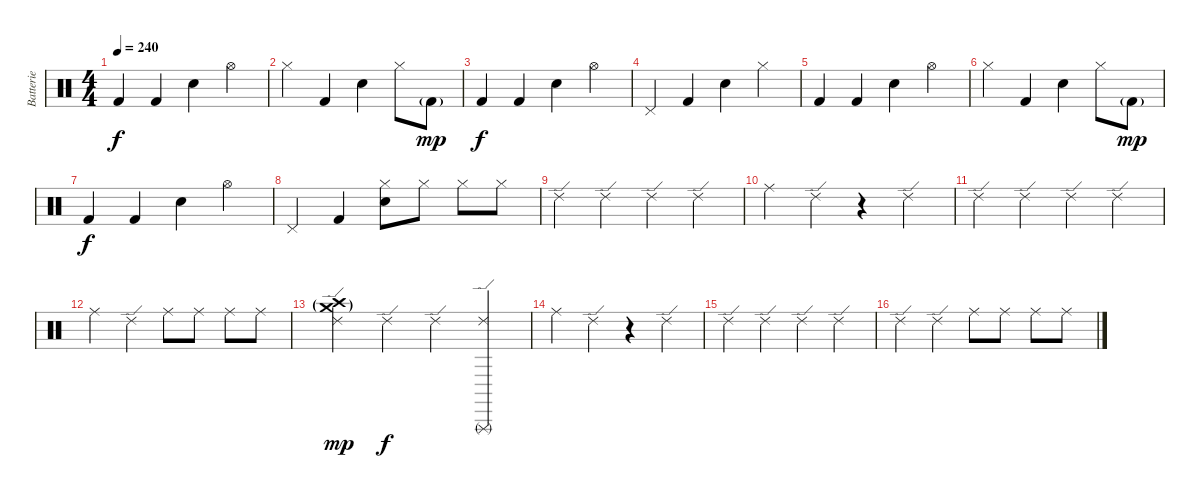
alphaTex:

\track ("Batterie" "Batterie") {instrument percussion}
\staff {score}
\articulation defaults
\ts (4 4)
\tempo 240
\clef neutral
\ks c "Kick (hit) 2".4{dy f} "Kick (hit) 2".4 "Snare (hit) 2".4 "Hi-Hat (open)".4
|
"Hi-Hat (closed)".4 "Kick (hit) 2".4 "Snare (hit) 2".4 "Hi-Hat (closed)".8 "Kick (hit) 2"{g}.8{dy mp} |
"Kick (hit) 2".4{dy f} "Kick (hit) 2".4 "Snare (hit) 2".4 "Hi-Hat (open)".4 |
"Pedal Hi-Hat (hit)".4 "Kick (hit) 2".4 "Snare (hit) 2".4 "Hi-Hat (closed)".4 |
"Kick (hit) 2".4 "Kick (hit) 2".4 "Snare (hit) 2".4 "Hi-Hat (open)".4 |
"Hi-Hat (closed)".4 "Kick (hit) 2".4 "Snare (hit) 2".4 "Hi-Hat (closed)".8 "Kick (hit) 2"{g}.8{dy mp} |
"Kick (hit) 2".4{dy f} "Kick (hit) 2".4 "Snare (hit) 2".4 "Hi-Hat (open)".4 |
"Pedal Hi-Hat (hit)".4 "Kick (hit) 2".4 ("Hi-Hat (closed)" "Snare (hit) 2").8 "Hi-Hat (closed)".8 "Hi-Hat (closed)".8 "Hi-Hat (closed)".8 |
\section ("" "")
"Ride (edge) 2".4 "Ride (edge) 2".4 "Ride (edge) 2".4 "Ride (edge) 2".4 |
"Ride (middle)".4 "Ride (edge) 2".4 r.4 "Ride (edge) 2".4 |
"Ride (edge) 2".4 "Ride (edge) 2".4 "Ride (edge) 2".4 "Ride (edge) 2".4 |
"Ride (middle)".4 "Ride (edge) 2".4 "Ride (middle)".8 "Ride (middle)".8 "Ride (middle)".8 "Ride (middle)".8 |
("Ride (edge) 2" "Crash medium (hit)"{g} "Crash high (hit)"{g}).4{dy mp} "Ride (edge) 2".4{dy f} "Ride (edge) 2".4 ("Ride (edge) 2" "Triangle (rnute)").4 |
"Ride (middle)".4 "Ride (edge) 2".4 r.4 "Ride (edge) 2".4 |
"Ride (edge) 2".4 "Ride (edge) 2".4 "Ride (edge) 2".4 "Ride (edge) 2".4 |
"Ride (edge) 2".4 "Ride (edge) 2".4 "Ride (middle)".8 "Ride (middle)".8 "Ride (middle)".8 "Ride (middle)".8
